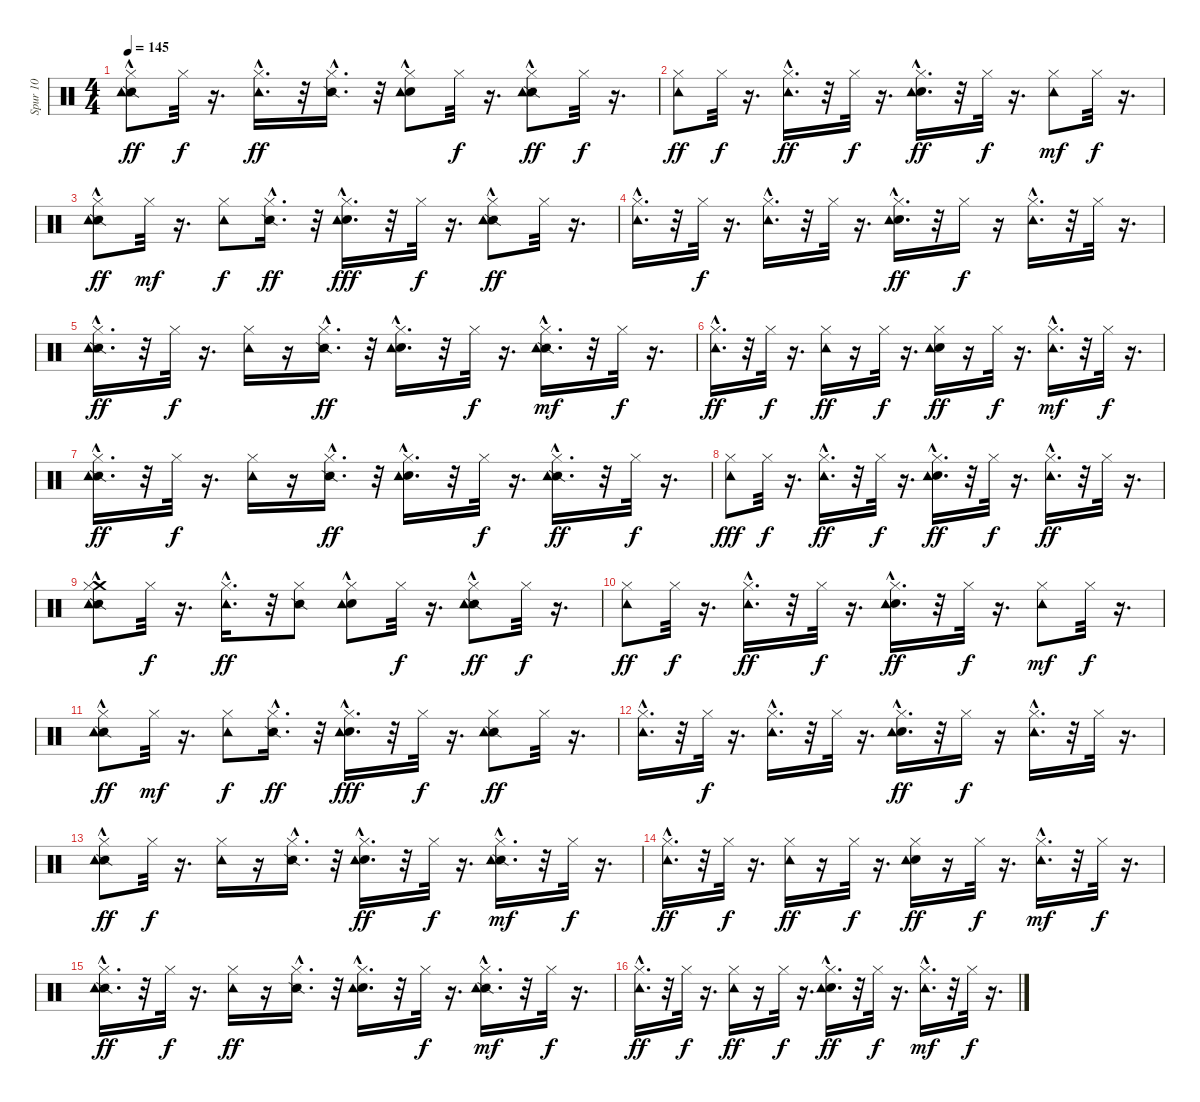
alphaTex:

\track ("Spur 10" "Spur 10") {instrument percussion}
\staff {score}
\articulation defaults
\ts (4 4)
\tempo 145
\clef neutral
\ks c
("Snare (side stick) 2"{hac} "Tambourine (hit)" "Hi-Hat (closed)").8{dy ff} "Hi-Hat (closed)".32{dy f} r.16{d} ("Tambourine (hit)"{hac} "Hi-Hat (closed)").16{d dy ff} r.32 ("Snare (side stick) 2"{hac} "Hi-Hat (closed)").16{d} r.32 ("Electric Snare (hit)"{hac} "Tambourine (hit)" "Hi-Hat (closed)").8 "Hi-Hat (closed)".32{dy f} r.16{d} ("Snare (side stick) 2"{hac} "Tambourine (hit)" "Hi-Hat (closed)").8{dy ff} "Hi-Hat (closed)".32{dy f} r.16{d} |
("Tambourine (hit)" "Hi-Hat (closed)").8{dy ff} "Hi-Hat (closed)".32{dy f} r.16{d} ("Tambourine (hit)"{hac} "Hi-Hat (closed)").16{d dy ff} r.32 "Hi-Hat (closed)".32{dy f} r.16{d} ("Electric Snare (hit)"{hac} "Tambourine (hit)"{hac} "Hi-Hat (closed)").16{d dy ff} r.32 "Hi-Hat (closed)".32{dy f} r.16{d} ("Tambourine (hit)" "Hi-Hat (closed)").8{dy mf} "Hi-Hat (closed)".32{dy f} r.16{d} |
("Snare (side stick) 2"{hac} "Tambourine (hit)" "Hi-Hat (closed)").8{dy ff} "Hi-Hat (closed)".32{dy mf} r.16{d} ("Tambourine (hit)" "Hi-Hat (closed)").8{dy f} ("Snare (side stick) 2"{hac} "Hi-Hat (closed)").16{d dy ff} r.32 ("Electric Snare (hit)"{hac} "Tambourine (hit)"{hac} "Hi-Hat (closed)").16{d dy fff} r.32 "Hi-Hat (closed)".32{dy f} r.16{d} ("Snare (side stick) 2"{hac} "Tambourine (hit)" "Hi-Hat (closed)").8{dy ff} "Hi-Hat (closed)".32 r.16{d} |
("Tambourine (hit)"{hac} "Hi-Hat (closed)").16{d} r.32 "Hi-Hat (closed)".32{dy f} r.16{d} ("Tambourine (hit)"{hac} "Hi-Hat (closed)").16{d} r.32 "Hi-Hat (closed)".32 r.16{d} ("Electric Snare (hit)" "Tambourine (hit)"{hac} "Hi-Hat (closed)").16{d dy ff} r.32 "Hi-Hat (closed)".16{dy f} r.16 ("Tambourine (hit)"{hac} "Hi-Hat (closed)").16{d} r.32 "Hi-Hat (closed)".32 r.16{d} |
("Snare (side stick) 2"{hac} "Tambourine (hit)"{hac} "Hi-Hat (closed)").16{d dy ff} r.32 "Hi-Hat (closed)".32{dy f} r.16{d} ("Tambourine (hit)" "Hi-Hat (closed)").16 r.16 ("Snare (side stick) 2"{hac} "Hi-Hat (closed)").16{d dy ff} r.32 ("Electric Snare (hit)"{hac} "Tambourine (hit)"{hac} "Hi-Hat (closed)").16{d} r.32 "Hi-Hat (closed)".32{dy f} r.16{d} ("Snare (side stick) 2"{hac} "Tambourine (hit)"{hac} "Hi-Hat (closed)").16{d dy mf} r.32 "Hi-Hat (closed)".32{dy f} r.16{d} |
("Tambourine (hit)"{hac} "Hi-Hat (closed)").16{d dy ff} r.32 "Hi-Hat (closed)".32{dy f} r.16{d} ("Tambourine (hit)" "Hi-Hat (closed)").16{dy ff} r.16 "Hi-Hat (closed)".32{dy f} r.16{d} ("Electric Snare (hit)" "Tambourine (hit)" "Hi-Hat (closed)").16{dy ff} r.16 "Hi-Hat (closed)".32{dy f} r.16{d} ("Tambourine (hit)"{hac} "Hi-Hat (closed)").16{d dy mf} r.32 "Hi-Hat (closed)".32{dy f} r.16{d} |
("Snare (side stick) 2"{hac} "Tambourine (hit)"{hac} "Hi-Hat (closed)").16{d dy ff} r.32 "Hi-Hat (closed)".32{dy f} r.16{d} ("Tambourine (hit)" "Hi-Hat (closed)").16 r.16 ("Snare (side stick) 2"{hac} "Hi-Hat (closed)").16{d dy ff} r.32 ("Electric Snare (hit)"{hac} "Tambourine (hit)" "Hi-Hat (closed)").16{d} r.32 "Hi-Hat (closed)".32{dy f} r.16{d} ("Snare (side stick) 2" "Tambourine (hit)"{hac} "Hi-Hat (closed)").16{d dy ff} r.32 "Hi-Hat (closed)".32{dy f} r.16{d} |
("Tambourine (hit)" "Hi-Hat (closed)").8{dy fff} "Hi-Hat (closed)".32{dy f} r.16{d} ("Tambourine (hit)"{hac} "Hi-Hat (closed)").16{d dy ff} r.32 "Hi-Hat (closed)".32{dy f} r.16{d} ("Electric Snare (hit)"{hac} "Tambourine (hit)"{hac} "Hi-Hat (closed)").16{d dy ff} r.32 "Hi-Hat (closed)".32{dy f} r.16{d} ("Tambourine (hit)"{hac} "Hi-Hat (closed)").16{d dy ff} r.32 "Hi-Hat (closed)".32 r.16{d} |
("Crash medium (hit)"{hac} "Snare (side stick) 2" "Tambourine (hit)" "Hi-Hat (closed)").8 "Hi-Hat (closed)".32{dy f} r.16{d} ("Tambourine (hit)"{hac} "Hi-Hat (closed)").16{d dy ff} r.32 ("Snare (side stick) 2" "Hi-Hat (closed)").8 ("Electric Snare (hit)"{hac} "Tambourine (hit)" "Hi-Hat (closed)").8 "Hi-Hat (closed)".32{dy f} r.16{d} ("Snare (side stick) 2"{hac} "Tambourine (hit)" "Hi-Hat (closed)").8{dy ff} "Hi-Hat (closed)".32{dy f} r.16{d} |
("Tambourine (hit)" "Hi-Hat (closed)").8{dy ff} "Hi-Hat (closed)".32{dy f} r.16{d} ("Tambourine (hit)"{hac} "Hi-Hat (closed)").16{d dy ff} r.32 "Hi-Hat (closed)".32{dy f} r.16{d} ("Electric Snare (hit)"{hac} "Tambourine (hit)"{hac} "Hi-Hat (closed)").16{d dy ff} r.32 "Hi-Hat (closed)".32{dy f} r.16{d} ("Tambourine (hit)" "Hi-Hat (closed)").8{dy mf} "Hi-Hat (closed)".32{dy f} r.16{d} |
("Snare (side stick) 2"{hac} "Tambourine (hit)" "Hi-Hat (closed)").8{dy ff} "Hi-Hat (closed)".32{dy mf} r.16{d} ("Tambourine (hit)" "Hi-Hat (closed)").8{dy f} ("Snare (side stick) 2"{hac} "Hi-Hat (closed)").16{d dy ff} r.32 ("Electric Snare (hit)"{hac} "Tambourine (hit)"{hac} "Hi-Hat (closed)").16{d dy fff} r.32 "Hi-Hat (closed)".32{dy f} r.16{d} ("Snare (side stick) 2" "Tambourine (hit)" "Hi-Hat (closed)").8{dy ff} "Hi-Hat (closed)".32 r.16{d} |
("Tambourine (hit)"{hac} "Hi-Hat (closed)").16{d} r.32 "Hi-Hat (closed)".32{dy f} r.16{d} ("Tambourine (hit)"{hac} "Hi-Hat (closed)").16{d} r.32 "Hi-Hat (closed)".32 r.16{d} ("Electric Snare (hit)"{hac} "Tambourine (hit)"{hac} "Hi-Hat (closed)").16{d dy ff} r.32 "Hi-Hat (closed)".16{dy f} r.16 ("Tambourine (hit)"{hac} "Hi-Hat (closed)").16{d} r.32 "Hi-Hat (closed)".32 r.16{d} |
("Snare (side stick) 2" "Tambourine (hit)"{hac} "Hi-Hat (closed)").8{dy ff} "Hi-Hat (closed)".32{dy f} r.16{d} ("Tambourine (hit)" "Hi-Hat (closed)").16 r.16 ("Snare (side stick) 2"{hac} "Hi-Hat (closed)").16{d} r.32 ("Electric Snare (hit)"{hac} "Tambourine (hit)"{hac} "Hi-Hat (closed)").16{d dy ff} r.32 "Hi-Hat (closed)".32{dy f} r.16{d} ("Snare (side stick) 2"{hac} "Tambourine (hit)"{hac} "Hi-Hat (closed)").16{d dy mf} r.32 "Hi-Hat (closed)".32{dy f} r.16{d} |
("Tambourine (hit)"{hac} "Hi-Hat (closed)").16{d dy ff} r.32 "Hi-Hat (closed)".32{dy f} r.16{d} ("Tambourine (hit)" "Hi-Hat (closed)").16{dy ff} r.16 "Hi-Hat (closed)".32{dy f} r.16{d} ("Electric Snare (hit)" "Tambourine (hit)" "Hi-Hat (closed)").16{dy ff} r.16 "Hi-Hat (closed)".32{dy f} r.16{d} ("Tambourine (hit)"{hac} "Hi-Hat (closed)").16{d dy mf} r.32 "Hi-Hat (closed)".32{dy f} r.16{d} |
("Snare (side stick) 2"{hac} "Tambourine (hit)"{hac} "Hi-Hat (closed)").16{d dy ff} r.32 "Hi-Hat (closed)".32{dy f} r.16{d} ("Tambourine (hit)" "Hi-Hat (closed)").16{dy ff} r.16 ("Snare (side stick) 2"{hac} "Hi-Hat (closed)").16{d} r.32 ("Electric Snare (hit)"{hac} "Tambourine (hit)" "Hi-Hat (closed)").16{d} r.32 "Hi-Hat (closed)".32{dy f} r.16{d} ("Snare (side stick) 2"{hac} "Tambourine (hit)"{hac} "Hi-Hat (closed)").16{d dy mf} r.32 "Hi-Hat (closed)".32{dy f} r.16{d} |
("Tambourine (hit)"{hac} "Hi-Hat (closed)").16{d dy ff} r.32 "Hi-Hat (closed)".32{dy f} r.16{d} ("Tambourine (hit)" "Hi-Hat (closed)").16{dy ff} r.16 "Hi-Hat (closed)".32{dy f} r.16{d} ("Electric Snare (hit)"{hac} "Tambourine (hit)" "Hi-Hat (closed)").16{d dy ff} r.32 "Hi-Hat (closed)".32{dy f} r.16{d} ("Tambourine (hit)"{hac} "Hi-Hat (closed)").16{d dy mf} r.32 "Hi-Hat (closed)".32{dy f} r.16{d}
